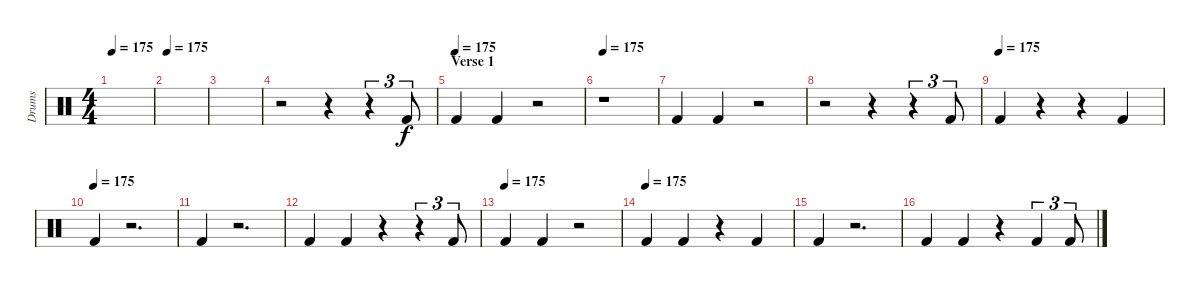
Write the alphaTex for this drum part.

\track ("Drums" "Drums") {instrument percussion}
\staff {score}
\articulation defaults
\ts (4 4)
\tempo 175
\clef neutral
\ks c
|
\tempo 175
|
|
r.2 r.4 r.4{tu (3 2)} "Kick (hit) 2".8{tu (3 2)} |
\section ("" "Verse 1")
\tempo (175)
"Kick (hit) 2".4 "Kick (hit) 2".4 r.2 |
\tempo 175
r.1 |
"Kick (hit) 2".4 "Kick (hit) 2".4 r.2 |
r.2 r.4 r.4{tu (3 2)} "Kick (hit) 2".8{tu (3 2)} |
\tempo (175)
"Kick (hit) 2".4 r.4 r.4 "Kick (hit) 2".4 |
\tempo (175)
"Kick (hit) 2".4 r.2{d} |
"Kick (hit) 2".4 r.2{d} |
"Kick (hit) 2".4 "Kick (hit) 2".4 r.4 r.4{tu (3 2)} "Kick (hit) 2".8{tu (3 2)} |
\tempo (175)
"Kick (hit) 2".4 "Kick (hit) 2".4 r.2 |
\tempo (175)
"Kick (hit) 2".4 "Kick (hit) 2".4 r.4 "Kick (hit) 2".4 |
"Kick (hit) 2".4 r.2{d} |
"Kick (hit) 2".4 "Kick (hit) 2".4 r.4 "Kick (hit) 2".4{tu (3 2)} "Kick (hit) 2".8{tu (3 2)}
